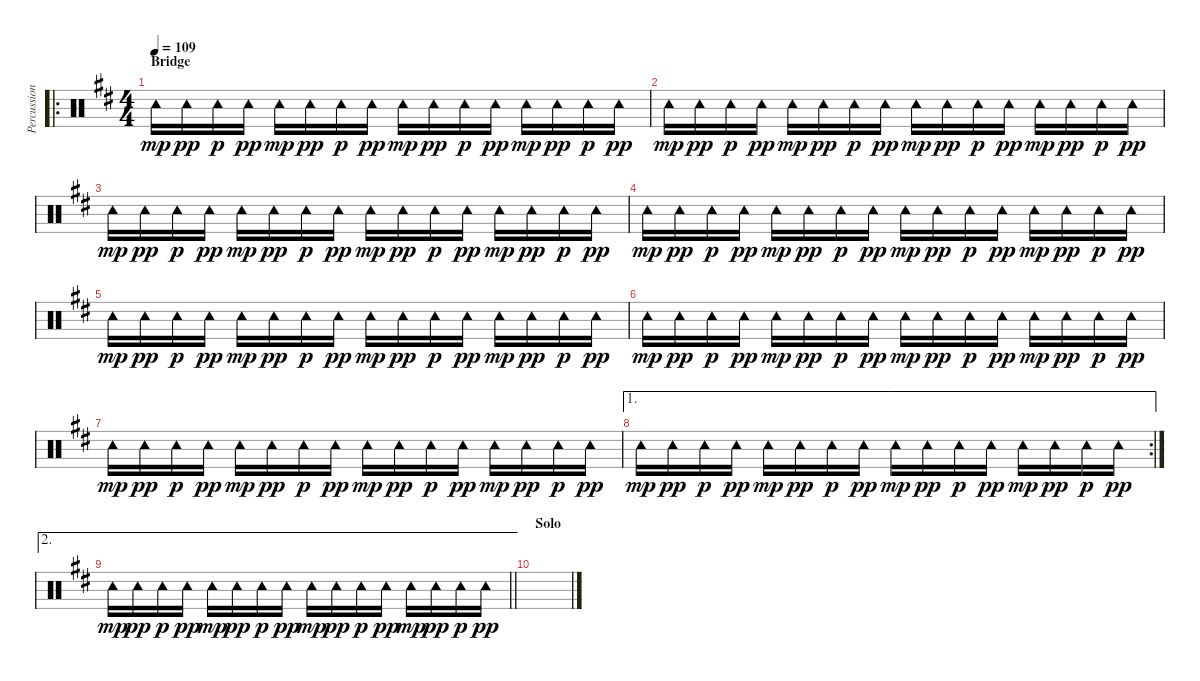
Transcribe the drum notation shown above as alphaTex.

\track ("Percussion (Rick McMurray)" "Percussion") {instrument percussion}
\staff {score}
\articulation defaults
\ro
\ts (4 4)
\section ("" "Bridge")
\tempo 109
\clef neutral
\ks d "Tambourine (hit)".16{dy mp} "Tambourine (hit)".16{dy pp} "Tambourine (hit)".16{dy p} "Tambourine (hit)".16{dy pp} "Tambourine (hit)".16{dy mp} "Tambourine (hit)".16{dy pp} "Tambourine (hit)".16{dy p} "Tambourine (hit)".16{dy pp} "Tambourine (hit)".16{dy mp} "Tambourine (hit)".16{dy pp} "Tambourine (hit)".16{dy p} "Tambourine (hit)".16{dy pp} "Tambourine (hit)".16{dy mp} "Tambourine (hit)".16{dy pp} "Tambourine (hit)".16{dy p} "Tambourine (hit)".16{dy pp}
|
"Tambourine (hit)".16{dy mp} "Tambourine (hit)".16{dy pp} "Tambourine (hit)".16{dy p} "Tambourine (hit)".16{dy pp} "Tambourine (hit)".16{dy mp} "Tambourine (hit)".16{dy pp} "Tambourine (hit)".16{dy p} "Tambourine (hit)".16{dy pp} "Tambourine (hit)".16{dy mp} "Tambourine (hit)".16{dy pp} "Tambourine (hit)".16{dy p} "Tambourine (hit)".16{dy pp} "Tambourine (hit)".16{dy mp} "Tambourine (hit)".16{dy pp} "Tambourine (hit)".16{dy p} "Tambourine (hit)".16{dy pp} |
"Tambourine (hit)".16{dy mp} "Tambourine (hit)".16{dy pp} "Tambourine (hit)".16{dy p} "Tambourine (hit)".16{dy pp} "Tambourine (hit)".16{dy mp} "Tambourine (hit)".16{dy pp} "Tambourine (hit)".16{dy p} "Tambourine (hit)".16{dy pp} "Tambourine (hit)".16{dy mp} "Tambourine (hit)".16{dy pp} "Tambourine (hit)".16{dy p} "Tambourine (hit)".16{dy pp} "Tambourine (hit)".16{dy mp} "Tambourine (hit)".16{dy pp} "Tambourine (hit)".16{dy p} "Tambourine (hit)".16{dy pp} |
"Tambourine (hit)".16{dy mp} "Tambourine (hit)".16{dy pp} "Tambourine (hit)".16{dy p} "Tambourine (hit)".16{dy pp} "Tambourine (hit)".16{dy mp} "Tambourine (hit)".16{dy pp} "Tambourine (hit)".16{dy p} "Tambourine (hit)".16{dy pp} "Tambourine (hit)".16{dy mp} "Tambourine (hit)".16{dy pp} "Tambourine (hit)".16{dy p} "Tambourine (hit)".16{dy pp} "Tambourine (hit)".16{dy mp} "Tambourine (hit)".16{dy pp} "Tambourine (hit)".16{dy p} "Tambourine (hit)".16{dy pp} |
"Tambourine (hit)".16{dy mp} "Tambourine (hit)".16{dy pp} "Tambourine (hit)".16{dy p} "Tambourine (hit)".16{dy pp} "Tambourine (hit)".16{dy mp} "Tambourine (hit)".16{dy pp} "Tambourine (hit)".16{dy p} "Tambourine (hit)".16{dy pp} "Tambourine (hit)".16{dy mp} "Tambourine (hit)".16{dy pp} "Tambourine (hit)".16{dy p} "Tambourine (hit)".16{dy pp} "Tambourine (hit)".16{dy mp} "Tambourine (hit)".16{dy pp} "Tambourine (hit)".16{dy p} "Tambourine (hit)".16{dy pp} |
"Tambourine (hit)".16{dy mp} "Tambourine (hit)".16{dy pp} "Tambourine (hit)".16{dy p} "Tambourine (hit)".16{dy pp} "Tambourine (hit)".16{dy mp} "Tambourine (hit)".16{dy pp} "Tambourine (hit)".16{dy p} "Tambourine (hit)".16{dy pp} "Tambourine (hit)".16{dy mp} "Tambourine (hit)".16{dy pp} "Tambourine (hit)".16{dy p} "Tambourine (hit)".16{dy pp} "Tambourine (hit)".16{dy mp} "Tambourine (hit)".16{dy pp} "Tambourine (hit)".16{dy p} "Tambourine (hit)".16{dy pp} |
"Tambourine (hit)".16{dy mp} "Tambourine (hit)".16{dy pp} "Tambourine (hit)".16{dy p} "Tambourine (hit)".16{dy pp} "Tambourine (hit)".16{dy mp} "Tambourine (hit)".16{dy pp} "Tambourine (hit)".16{dy p} "Tambourine (hit)".16{dy pp} "Tambourine (hit)".16{dy mp} "Tambourine (hit)".16{dy pp} "Tambourine (hit)".16{dy p} "Tambourine (hit)".16{dy pp} "Tambourine (hit)".16{dy mp} "Tambourine (hit)".16{dy pp} "Tambourine (hit)".16{dy p} "Tambourine (hit)".16{dy pp} |
\ae 1
\rc 2 "Tambourine (hit)".16{dy mp} "Tambourine (hit)".16{dy pp} "Tambourine (hit)".16{dy p} "Tambourine (hit)".16{dy pp} "Tambourine (hit)".16{dy mp} "Tambourine (hit)".16{dy pp} "Tambourine (hit)".16{dy p} "Tambourine (hit)".16{dy pp} "Tambourine (hit)".16{dy mp} "Tambourine (hit)".16{dy pp} "Tambourine (hit)".16{dy p} "Tambourine (hit)".16{dy pp} "Tambourine (hit)".16{dy mp} "Tambourine (hit)".16{dy pp} "Tambourine (hit)".16{dy p} "Tambourine (hit)".16{dy pp}
|
\ae 2
\barLineRight lightlight "Tambourine (hit)".16{dy mp} "Tambourine (hit)".16{dy pp} "Tambourine (hit)".16{dy p} "Tambourine (hit)".16{dy pp} "Tambourine (hit)".16{dy mp} "Tambourine (hit)".16{dy pp} "Tambourine (hit)".16{dy p} "Tambourine (hit)".16{dy pp} "Tambourine (hit)".16{dy mp} "Tambourine (hit)".16{dy pp} "Tambourine (hit)".16{dy p} "Tambourine (hit)".16{dy pp} "Tambourine (hit)".16{dy mp} "Tambourine (hit)".16{dy pp} "Tambourine (hit)".16{dy p} "Tambourine (hit)".16{dy pp}
|
\section ("" "Solo")
